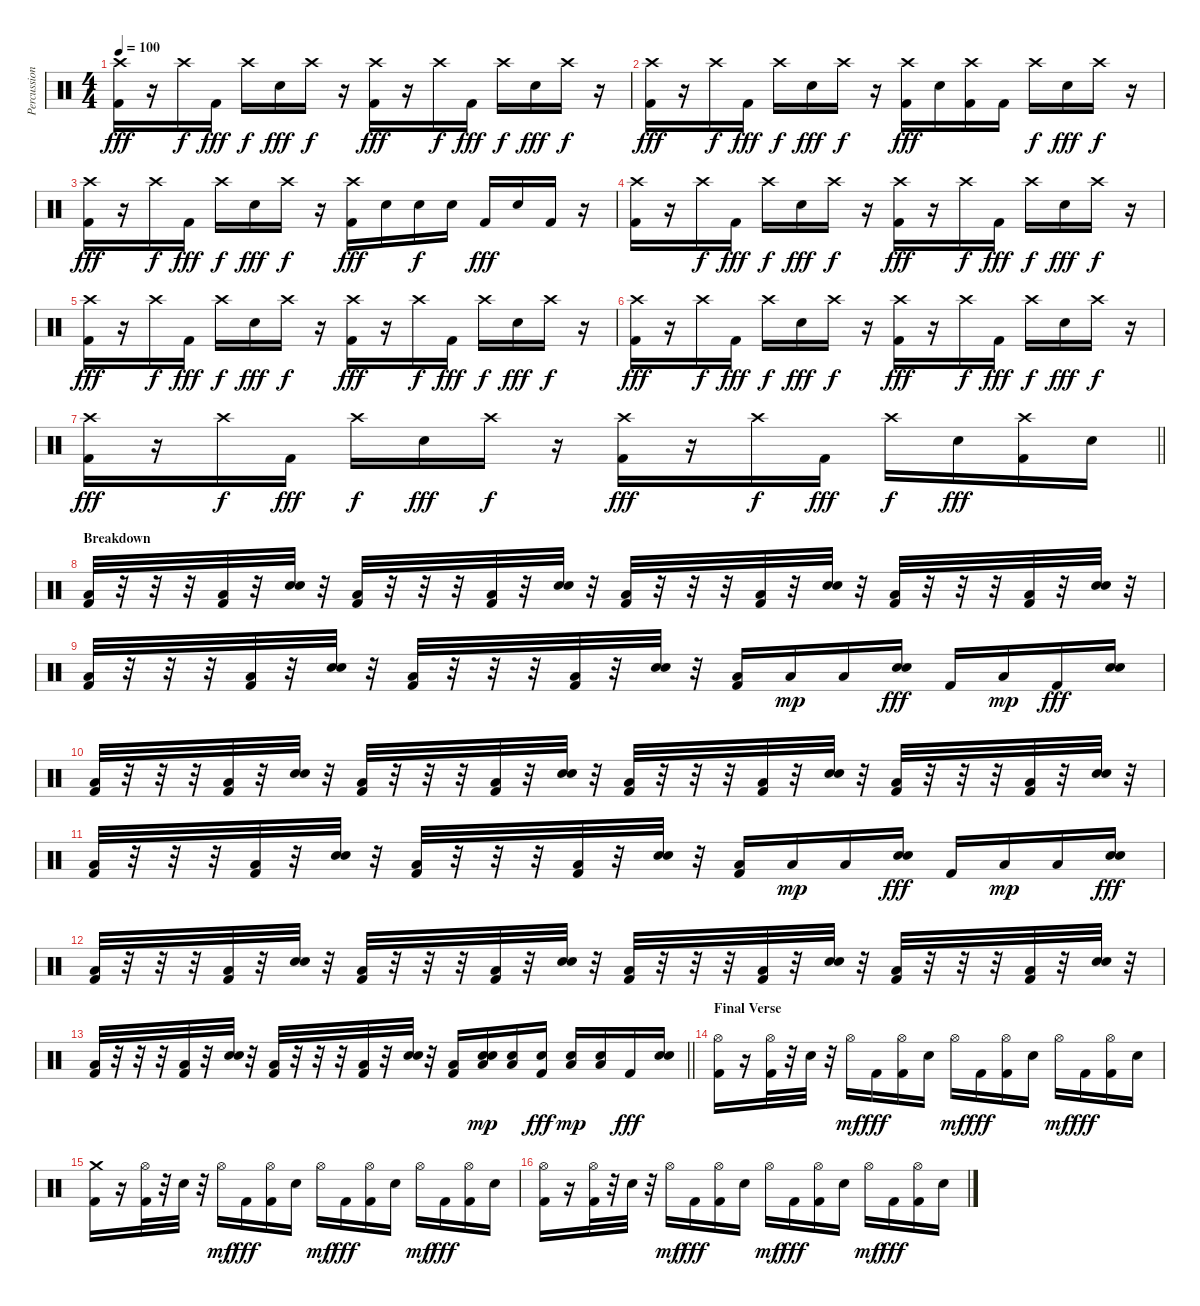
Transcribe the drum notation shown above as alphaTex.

\track ("Percussion" "Percussion") {instrument percussion}
\staff {score}
\articulation defaults
\ts (4 4)
\tempo 100
\clef neutral
\ks c
("Crash high (hit)" "Kick (hit) 2").16{dy fff} r.16 "Crash high (hit)".16{dy f} "Kick (hit) 2".16{dy fff} "Crash high (hit)".16{dy f} "Electric Snare (hit)".16{dy fff} "Crash high (hit)".16{dy f} r.16 ("Crash high (hit)" "Kick (hit) 2").16{dy fff} r.16 "Crash high (hit)".16{dy f} "Kick (hit) 2".16{dy fff} "Crash high (hit)".16{dy f} "Electric Snare (hit)".16{dy fff} "Crash high (hit)".16{dy f} r.16 |
("Crash high (hit)" "Kick (hit) 2").16{dy fff} r.16 "Crash high (hit)".16{dy f} "Kick (hit) 2".16{dy fff} "Crash high (hit)".16{dy f} "Electric Snare (hit)".16{dy fff} "Crash high (hit)".16{dy f} r.16 ("Crash high (hit)" "Kick (hit) 2").16{dy fff} "Electric Snare (hit)".16 ("Crash high (hit)" "Kick (hit) 2").16 "Kick (hit) 2".16 "Crash high (hit)".16{dy f} "Electric Snare (hit)".16{dy fff} "Crash high (hit)".16{dy f} r.16 |
("Crash high (hit)" "Kick (hit) 2").16{dy fff} r.16 "Crash high (hit)".16{dy f} "Kick (hit) 2".16{dy fff} "Crash high (hit)".16{dy f} "Electric Snare (hit)".16{dy fff} "Crash high (hit)".16{dy f} r.16 ("Crash high (hit)" "Kick (hit) 2").16{dy fff} "Electric Snare (hit)".16 "Electric Snare (hit)".16{dy f} "Electric Snare (hit)".16 "Kick (hit) 2".16{dy fff} "Electric Snare (hit)".16 "Kick (hit) 2".16 r.16 |
("Crash high (hit)" "Kick (hit) 2").16 r.16 "Crash high (hit)".16{dy f} "Kick (hit) 2".16{dy fff} "Crash high (hit)".16{dy f} "Electric Snare (hit)".16{dy fff} "Crash high (hit)".16{dy f} r.16 ("Crash high (hit)" "Kick (hit) 2").16{dy fff} r.16 "Crash high (hit)".16{dy f} "Kick (hit) 2".16{dy fff} "Crash high (hit)".16{dy f} "Electric Snare (hit)".16{dy fff} "Crash high (hit)".16{dy f} r.16 |
("Crash high (hit)" "Kick (hit) 2").16{dy fff} r.16 "Crash high (hit)".16{dy f} "Kick (hit) 2".16{dy fff} "Crash high (hit)".16{dy f} "Electric Snare (hit)".16{dy fff} "Crash high (hit)".16{dy f} r.16 ("Crash high (hit)" "Kick (hit) 2").16{dy fff} r.16 "Crash high (hit)".16{dy f} "Kick (hit) 2".16{dy fff} "Crash high (hit)".16{dy f} "Electric Snare (hit)".16{dy fff} "Crash high (hit)".16{dy f} r.16 |
("Crash high (hit)" "Kick (hit) 2").16{dy fff} r.16 "Crash high (hit)".16{dy f} "Kick (hit) 2".16{dy fff} "Crash high (hit)".16{dy f} "Electric Snare (hit)".16{dy fff} "Crash high (hit)".16{dy f} r.16 ("Crash high (hit)" "Kick (hit) 2").16{dy fff} r.16 "Crash high (hit)".16{dy f} "Kick (hit) 2".16{dy fff} "Crash high (hit)".16{dy f} "Electric Snare (hit)".16{dy fff} "Crash high (hit)".16{dy f} r.16 |
\barLineRight lightlight
("Crash high (hit)" "Kick (hit) 2").16{dy fff} r.16 "Crash high (hit)".16{dy f} "Kick (hit) 2".16{dy fff} "Crash high (hit)".16{dy f} "Electric Snare (hit)".16{dy fff} "Crash high (hit)".16{dy f} r.16 ("Crash high (hit)" "Kick (hit) 2").16{dy fff} r.16 "Crash high (hit)".16{dy f} "Kick (hit) 2".16{dy fff} "Crash high (hit)".16{dy f} "Electric Snare (hit)".16{dy fff} ("Crash high (hit)" "Kick (hit) 2").16 "Electric Snare (hit)".16 |
\section ("" "Breakdown")
("Low Tom (hit)" "Kick (hit) 2").32 r.32 r.32 r.32 ("Low Tom (hit)" "Kick (hit) 2").32 r.32 ("Hand Clap (hit)" "Electric Snare (hit)").32 r.32 ("Low Tom (hit)" "Kick (hit) 2").32 r.32 r.32 r.32 ("Low Tom (hit)" "Kick (hit) 2").32 r.32 ("Hand Clap (hit)" "Electric Snare (hit)").32 r.32 ("Low Tom (hit)" "Kick (hit) 2").32 r.32 r.32 r.32 ("Low Tom (hit)" "Kick (hit) 2").32 r.32 ("Hand Clap (hit)" "Electric Snare (hit)").32 r.32 ("Low Tom (hit)" "Kick (hit) 2").32 r.32 r.32 r.32 ("Low Tom (hit)" "Kick (hit) 2").32 r.32 ("Hand Clap (hit)" "Electric Snare (hit)").32 r.32 |
("Low Tom (hit)" "Kick (hit) 2").32 r.32 r.32 r.32 ("Low Tom (hit)" "Kick (hit) 2").32 r.32 ("Hand Clap (hit)" "Electric Snare (hit)").32 r.32 ("Low Tom (hit)" "Kick (hit) 2").32 r.32 r.32 r.32 ("Low Tom (hit)" "Kick (hit) 2").32 r.32 ("Hand Clap (hit)" "Electric Snare (hit)").32 r.32 ("Low Tom (hit)" "Kick (hit) 2").16 "Low Tom (hit)".16{dy mp} "Low Tom (hit)".16 ("Hand Clap (hit)" "Electric Snare (hit)").16{dy fff} "Kick (hit) 2".16 "Low Tom (hit)".16{dy mp} "Kick (hit) 2".16{dy fff} ("Hand Clap (hit)" "Electric Snare (hit)").16 |
("Low Tom (hit)" "Kick (hit) 2").32 r.32 r.32 r.32 ("Low Tom (hit)" "Kick (hit) 2").32 r.32 ("Hand Clap (hit)" "Electric Snare (hit)").32 r.32 ("Low Tom (hit)" "Kick (hit) 2").32 r.32 r.32 r.32 ("Low Tom (hit)" "Kick (hit) 2").32 r.32 ("Hand Clap (hit)" "Electric Snare (hit)").32 r.32 ("Low Tom (hit)" "Kick (hit) 2").32 r.32 r.32 r.32 ("Low Tom (hit)" "Kick (hit) 2").32 r.32 ("Hand Clap (hit)" "Electric Snare (hit)").32 r.32 ("Low Tom (hit)" "Kick (hit) 2").32 r.32 r.32 r.32 ("Low Tom (hit)" "Kick (hit) 2").32 r.32 ("Hand Clap (hit)" "Electric Snare (hit)").32 r.32 |
("Low Tom (hit)" "Kick (hit) 2").32 r.32 r.32 r.32 ("Low Tom (hit)" "Kick (hit) 2").32 r.32 ("Hand Clap (hit)" "Electric Snare (hit)").32 r.32 ("Low Tom (hit)" "Kick (hit) 2").32 r.32 r.32 r.32 ("Low Tom (hit)" "Kick (hit) 2").32 r.32 ("Hand Clap (hit)" "Electric Snare (hit)").32 r.32 ("Low Tom (hit)" "Kick (hit) 2").16 "Low Tom (hit)".16{dy mp} "Low Tom (hit)".16 ("Hand Clap (hit)" "Electric Snare (hit)").16{dy fff} "Kick (hit) 2".16 "Low Tom (hit)".16{dy mp} "Low Tom (hit)".16 ("Hand Clap (hit)" "Electric Snare (hit)").16{dy fff} |
("Low Tom (hit)" "Kick (hit) 2").32 r.32 r.32 r.32 ("Low Tom (hit)" "Kick (hit) 2").32 r.32 ("Hand Clap (hit)" "Electric Snare (hit)").32 r.32 ("Low Tom (hit)" "Kick (hit) 2").32 r.32 r.32 r.32 ("Low Tom (hit)" "Kick (hit) 2").32 r.32 ("Hand Clap (hit)" "Electric Snare (hit)").32 r.32 ("Low Tom (hit)" "Kick (hit) 2").32 r.32 r.32 r.32 ("Low Tom (hit)" "Kick (hit) 2").32 r.32 ("Hand Clap (hit)" "Electric Snare (hit)").32 r.32 ("Low Tom (hit)" "Kick (hit) 2").32 r.32 r.32 r.32 ("Low Tom (hit)" "Kick (hit) 2").32 r.32 ("Hand Clap (hit)" "Electric Snare (hit)").32 r.32 |
\barLineRight lightlight
("Low Tom (hit)" "Kick (hit) 2").32 r.32 r.32 r.32 ("Low Tom (hit)" "Kick (hit) 2").32 r.32 ("Hand Clap (hit)" "Electric Snare (hit)").32 r.32 ("Low Tom (hit)" "Kick (hit) 2").32 r.32 r.32 r.32 ("Low Tom (hit)" "Kick (hit) 2").32 r.32 ("Hand Clap (hit)" "Electric Snare (hit)").32 r.32 ("Low Tom (hit)" "Kick (hit) 2").16 ("Hand Clap (hit)" "Electric Snare (hit)" "Low Tom (hit)").16{dy mp} ("Hand Clap (hit)" "Low Tom (hit)").16 ("Hand Clap (hit)" "Kick (hit) 2").16{dy fff} ("Electric Snare (hit)" "Low Tom (hit)").16{dy mp} ("Hand Clap (hit)" "Low Tom (hit)").16 "Kick (hit) 2".16{dy fff} ("Hand Clap (hit)" "Electric Snare (hit)").16 |
\section ("" "Final Verse")
("Hi-Hat (open)" "Kick (hit) 2").16 r.16 ("Hi-Hat (open)" "Kick (hit) 2").32 r.32 "Electric Snare (hit)".32 r.32 "Hi-Hat (open)".16{dy mf} "Kick (hit) 2".16{dy fff} ("Hi-Hat (open)" "Kick (hit) 2").16 "Electric Snare (hit)".16 "Hi-Hat (open)".16{dy mf} "Kick (hit) 2".16{dy fff} ("Hi-Hat (open)" "Kick (hit) 2").16 "Electric Snare (hit)".16 "Hi-Hat (open)".16{dy mf} "Kick (hit) 2".16{dy fff} ("Hi-Hat (open)" "Kick (hit) 2").16 "Electric Snare (hit)".16 |
("Crash medium (hit)" "Kick (hit) 2").16 r.16 ("Hi-Hat (open)" "Kick (hit) 2").32 r.32 "Electric Snare (hit)".32 r.32 "Hi-Hat (open)".16{dy mf} "Kick (hit) 2".16{dy fff} ("Hi-Hat (open)" "Kick (hit) 2").16 "Electric Snare (hit)".16 "Hi-Hat (open)".16{dy mf} "Kick (hit) 2".16{dy fff} ("Hi-Hat (open)" "Kick (hit) 2").16 "Electric Snare (hit)".16 "Hi-Hat (open)".16{dy mf} "Kick (hit) 2".16{dy fff} ("Hi-Hat (open)" "Kick (hit) 2").16 "Electric Snare (hit)".16 |
("Hi-Hat (open)" "Kick (hit) 2").16 r.16 ("Hi-Hat (open)" "Kick (hit) 2").32 r.32 "Electric Snare (hit)".32 r.32 "Hi-Hat (open)".16{dy mf} "Kick (hit) 2".16{dy fff} ("Hi-Hat (open)" "Kick (hit) 2").16 "Electric Snare (hit)".16 "Hi-Hat (open)".16{dy mf} "Kick (hit) 2".16{dy fff} ("Hi-Hat (open)" "Kick (hit) 2").16 "Electric Snare (hit)".16 "Hi-Hat (open)".16{dy mf} "Kick (hit) 2".16{dy fff} ("Hi-Hat (open)" "Kick (hit) 2").16 "Electric Snare (hit)".16
